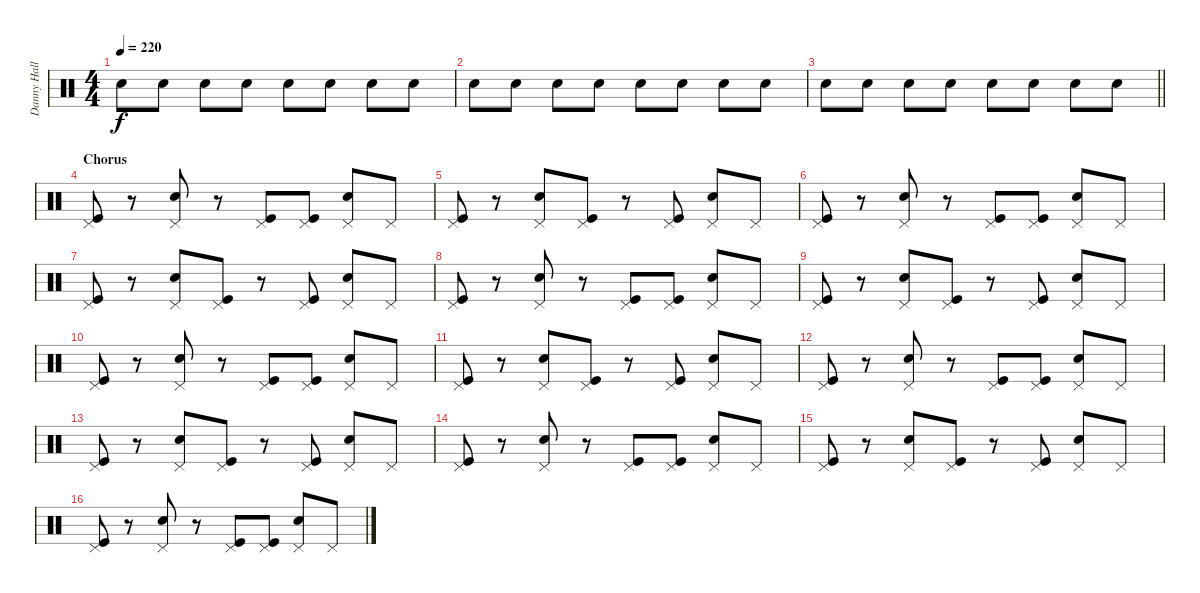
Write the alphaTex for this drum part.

\track ("Danny Hall" "Danny Hall") {instrument percussion}
\staff {score}
\articulation defaults
\ts (4 4)
\tempo 220
\clef neutral
\ks c "Snare (hit) 2".8{dy f} "Snare (hit) 2".8 "Snare (hit) 2".8 "Snare (hit) 2".8 "Snare (hit) 2".8 "Snare (hit) 2".8 "Snare (hit) 2".8 "Snare (hit) 2".8
|
"Snare (hit) 2".8 "Snare (hit) 2".8 "Snare (hit) 2".8 "Snare (hit) 2".8 "Snare (hit) 2".8 "Snare (hit) 2".8 "Snare (hit) 2".8 "Snare (hit) 2".8 |
\barLineRight lightlight "Snare (hit) 2".8 "Snare (hit) 2".8 "Snare (hit) 2".8 "Snare (hit) 2".8 "Snare (hit) 2".8 "Snare (hit) 2".8 "Snare (hit) 2".8 "Snare (hit) 2".8
|
\section ("" "Chorus")
("Pedal Hi-Hat (hit)" "Kick (hit)").8 r.8 ("Pedal Hi-Hat (hit)" "Snare (hit) 2").8 r.8 ("Pedal Hi-Hat (hit)" "Kick (hit)").8 ("Pedal Hi-Hat (hit)" "Kick (hit)").8 ("Pedal Hi-Hat (hit)" "Snare (hit) 2").8 "Pedal Hi-Hat (hit)".8 |
("Pedal Hi-Hat (hit)" "Kick (hit)").8 r.8 ("Pedal Hi-Hat (hit)" "Snare (hit) 2").8 ("Pedal Hi-Hat (hit)" "Kick (hit)").8 r.8 ("Pedal Hi-Hat (hit)" "Kick (hit)").8 ("Pedal Hi-Hat (hit)" "Snare (hit) 2").8 "Pedal Hi-Hat (hit)".8 |
("Pedal Hi-Hat (hit)" "Kick (hit)").8 r.8 ("Pedal Hi-Hat (hit)" "Snare (hit) 2").8 r.8 ("Pedal Hi-Hat (hit)" "Kick (hit)").8 ("Pedal Hi-Hat (hit)" "Kick (hit)").8 ("Pedal Hi-Hat (hit)" "Snare (hit) 2").8 "Pedal Hi-Hat (hit)".8 |
("Pedal Hi-Hat (hit)" "Kick (hit)").8 r.8 ("Pedal Hi-Hat (hit)" "Snare (hit) 2").8 ("Pedal Hi-Hat (hit)" "Kick (hit)").8 r.8 ("Pedal Hi-Hat (hit)" "Kick (hit)").8 ("Pedal Hi-Hat (hit)" "Snare (hit) 2").8 "Pedal Hi-Hat (hit)".8 |
("Pedal Hi-Hat (hit)" "Kick (hit)").8 r.8 ("Pedal Hi-Hat (hit)" "Snare (hit) 2").8 r.8 ("Pedal Hi-Hat (hit)" "Kick (hit)").8 ("Pedal Hi-Hat (hit)" "Kick (hit)").8 ("Pedal Hi-Hat (hit)" "Snare (hit) 2").8 "Pedal Hi-Hat (hit)".8 |
("Pedal Hi-Hat (hit)" "Kick (hit)").8 r.8 ("Pedal Hi-Hat (hit)" "Snare (hit) 2").8 ("Pedal Hi-Hat (hit)" "Kick (hit)").8 r.8 ("Pedal Hi-Hat (hit)" "Kick (hit)").8 ("Pedal Hi-Hat (hit)" "Snare (hit) 2").8 "Pedal Hi-Hat (hit)".8 |
("Pedal Hi-Hat (hit)" "Kick (hit)").8 r.8 ("Pedal Hi-Hat (hit)" "Snare (hit) 2").8 r.8 ("Pedal Hi-Hat (hit)" "Kick (hit)").8 ("Pedal Hi-Hat (hit)" "Kick (hit)").8 ("Pedal Hi-Hat (hit)" "Snare (hit) 2").8 "Pedal Hi-Hat (hit)".8 |
("Pedal Hi-Hat (hit)" "Kick (hit)").8 r.8 ("Pedal Hi-Hat (hit)" "Snare (hit) 2").8 ("Pedal Hi-Hat (hit)" "Kick (hit)").8 r.8 ("Pedal Hi-Hat (hit)" "Kick (hit)").8 ("Pedal Hi-Hat (hit)" "Snare (hit) 2").8 "Pedal Hi-Hat (hit)".8 |
("Pedal Hi-Hat (hit)" "Kick (hit)").8 r.8 ("Pedal Hi-Hat (hit)" "Snare (hit) 2").8 r.8 ("Pedal Hi-Hat (hit)" "Kick (hit)").8 ("Pedal Hi-Hat (hit)" "Kick (hit)").8 ("Pedal Hi-Hat (hit)" "Snare (hit) 2").8 "Pedal Hi-Hat (hit)".8 |
("Pedal Hi-Hat (hit)" "Kick (hit)").8 r.8 ("Pedal Hi-Hat (hit)" "Snare (hit) 2").8 ("Pedal Hi-Hat (hit)" "Kick (hit)").8 r.8 ("Pedal Hi-Hat (hit)" "Kick (hit)").8 ("Pedal Hi-Hat (hit)" "Snare (hit) 2").8 "Pedal Hi-Hat (hit)".8 |
("Pedal Hi-Hat (hit)" "Kick (hit)").8 r.8 ("Pedal Hi-Hat (hit)" "Snare (hit) 2").8 r.8 ("Pedal Hi-Hat (hit)" "Kick (hit)").8 ("Pedal Hi-Hat (hit)" "Kick (hit)").8 ("Pedal Hi-Hat (hit)" "Snare (hit) 2").8 "Pedal Hi-Hat (hit)".8 |
("Pedal Hi-Hat (hit)" "Kick (hit)").8 r.8 ("Pedal Hi-Hat (hit)" "Snare (hit) 2").8 ("Pedal Hi-Hat (hit)" "Kick (hit)").8 r.8 ("Pedal Hi-Hat (hit)" "Kick (hit)").8 ("Pedal Hi-Hat (hit)" "Snare (hit) 2").8 "Pedal Hi-Hat (hit)".8 |
("Pedal Hi-Hat (hit)" "Kick (hit)").8 r.8 ("Pedal Hi-Hat (hit)" "Snare (hit) 2").8 r.8 ("Pedal Hi-Hat (hit)" "Kick (hit)").8 ("Pedal Hi-Hat (hit)" "Kick (hit)").8 ("Pedal Hi-Hat (hit)" "Snare (hit) 2").8 "Pedal Hi-Hat (hit)".8
